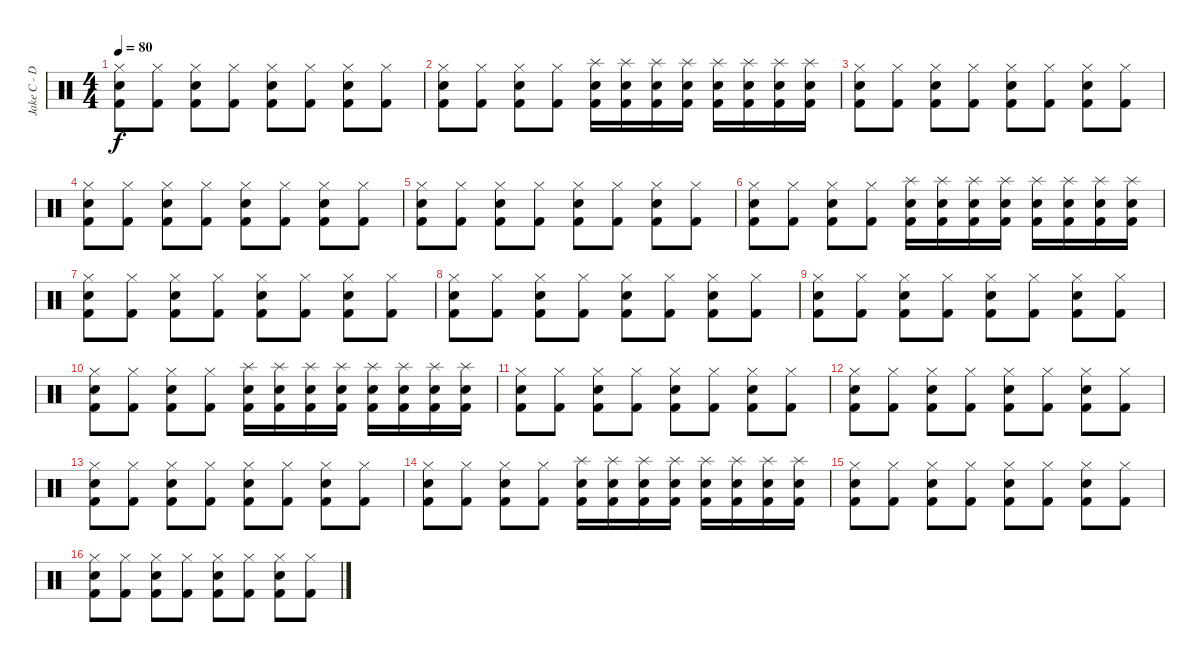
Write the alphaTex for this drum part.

\track ("Jake C - Drums" "Jake C - D") {instrument percussion}
\staff {score}
\articulation defaults
\ts (4 4)
\tempo 80
\clef neutral
\ks c
("Hi-Hat (closed)" "Electric Snare (hit)" "Kick (hit) 2").8{dy f} ("Hi-Hat (closed)" "Kick (hit) 2").8 ("Hi-Hat (closed)" "Electric Snare (hit)" "Kick (hit) 2").8 ("Hi-Hat (closed)" "Kick (hit) 2").8 ("Hi-Hat (closed)" "Electric Snare (hit)" "Kick (hit) 2").8 ("Hi-Hat (closed)" "Kick (hit) 2").8 ("Hi-Hat (closed)" "Electric Snare (hit)" "Kick (hit) 2").8 ("Hi-Hat (closed)" "Kick (hit) 2").8 |
("Hi-Hat (closed)" "Electric Snare (hit)" "Kick (hit) 2").8 ("Hi-Hat (closed)" "Kick (hit) 2").8 ("Hi-Hat (closed)" "Electric Snare (hit)" "Kick (hit) 2").8 ("Hi-Hat (closed)" "Kick (hit) 2").8 ("Splash (hit)" "Electric Snare (hit)" "Kick (hit) 2").16 ("Splash (hit)" "Electric Snare (hit)" "Kick (hit) 2").16 ("Splash (hit)" "Electric Snare (hit)" "Kick (hit) 2").16 ("Splash (hit)" "Electric Snare (hit)" "Kick (hit) 2").16 ("Splash (hit)" "Electric Snare (hit)" "Kick (hit) 2").16 ("Splash (hit)" "Electric Snare (hit)" "Kick (hit) 2").16 ("Splash (hit)" "Electric Snare (hit)" "Kick (hit) 2").16 ("Splash (hit)" "Electric Snare (hit)" "Kick (hit) 2").16 |
("Hi-Hat (closed)" "Electric Snare (hit)" "Kick (hit) 2").8 ("Hi-Hat (closed)" "Kick (hit) 2").8 ("Hi-Hat (closed)" "Electric Snare (hit)" "Kick (hit) 2").8 ("Hi-Hat (closed)" "Kick (hit) 2").8 ("Hi-Hat (closed)" "Electric Snare (hit)" "Kick (hit) 2").8 ("Hi-Hat (closed)" "Kick (hit) 2").8 ("Hi-Hat (closed)" "Electric Snare (hit)" "Kick (hit) 2").8 ("Hi-Hat (closed)" "Kick (hit) 2").8 |
("Hi-Hat (closed)" "Electric Snare (hit)" "Kick (hit) 2").8 ("Hi-Hat (closed)" "Kick (hit) 2").8 ("Hi-Hat (closed)" "Electric Snare (hit)" "Kick (hit) 2").8 ("Hi-Hat (closed)" "Kick (hit) 2").8 ("Hi-Hat (closed)" "Electric Snare (hit)" "Kick (hit) 2").8 ("Hi-Hat (closed)" "Kick (hit) 2").8 ("Hi-Hat (closed)" "Electric Snare (hit)" "Kick (hit) 2").8 ("Hi-Hat (closed)" "Kick (hit) 2").8 |
("Hi-Hat (closed)" "Electric Snare (hit)" "Kick (hit) 2").8 ("Hi-Hat (closed)" "Kick (hit) 2").8 ("Hi-Hat (closed)" "Electric Snare (hit)" "Kick (hit) 2").8 ("Hi-Hat (closed)" "Kick (hit) 2").8 ("Hi-Hat (closed)" "Electric Snare (hit)" "Kick (hit) 2").8 ("Hi-Hat (closed)" "Kick (hit) 2").8 ("Hi-Hat (closed)" "Electric Snare (hit)" "Kick (hit) 2").8 ("Hi-Hat (closed)" "Kick (hit) 2").8 |
("Hi-Hat (closed)" "Electric Snare (hit)" "Kick (hit) 2").8 ("Hi-Hat (closed)" "Kick (hit) 2").8 ("Hi-Hat (closed)" "Electric Snare (hit)" "Kick (hit) 2").8 ("Hi-Hat (closed)" "Kick (hit) 2").8 ("Splash (hit)" "Electric Snare (hit)" "Kick (hit) 2").16 ("Splash (hit)" "Electric Snare (hit)" "Kick (hit) 2").16 ("Splash (hit)" "Electric Snare (hit)" "Kick (hit) 2").16 ("Splash (hit)" "Electric Snare (hit)" "Kick (hit) 2").16 ("Splash (hit)" "Electric Snare (hit)" "Kick (hit) 2").16 ("Splash (hit)" "Electric Snare (hit)" "Kick (hit) 2").16 ("Splash (hit)" "Electric Snare (hit)" "Kick (hit) 2").16 ("Splash (hit)" "Electric Snare (hit)" "Kick (hit) 2").16 |
("Hi-Hat (closed)" "Electric Snare (hit)" "Kick (hit) 2").8 ("Hi-Hat (closed)" "Kick (hit) 2").8 ("Hi-Hat (closed)" "Electric Snare (hit)" "Kick (hit) 2").8 ("Hi-Hat (closed)" "Kick (hit) 2").8 ("Hi-Hat (closed)" "Electric Snare (hit)" "Kick (hit) 2").8 ("Hi-Hat (closed)" "Kick (hit) 2").8 ("Hi-Hat (closed)" "Electric Snare (hit)" "Kick (hit) 2").8 ("Hi-Hat (closed)" "Kick (hit) 2").8 |
("Hi-Hat (closed)" "Electric Snare (hit)" "Kick (hit) 2").8 ("Hi-Hat (closed)" "Kick (hit) 2").8 ("Hi-Hat (closed)" "Electric Snare (hit)" "Kick (hit) 2").8 ("Hi-Hat (closed)" "Kick (hit) 2").8 ("Hi-Hat (closed)" "Electric Snare (hit)" "Kick (hit) 2").8 ("Hi-Hat (closed)" "Kick (hit) 2").8 ("Hi-Hat (closed)" "Electric Snare (hit)" "Kick (hit) 2").8 ("Hi-Hat (closed)" "Kick (hit) 2").8 |
("Hi-Hat (closed)" "Electric Snare (hit)" "Kick (hit) 2").8 ("Hi-Hat (closed)" "Kick (hit) 2").8 ("Hi-Hat (closed)" "Electric Snare (hit)" "Kick (hit) 2").8 ("Hi-Hat (closed)" "Kick (hit) 2").8 ("Hi-Hat (closed)" "Electric Snare (hit)" "Kick (hit) 2").8 ("Hi-Hat (closed)" "Kick (hit) 2").8 ("Hi-Hat (closed)" "Electric Snare (hit)" "Kick (hit) 2").8 ("Hi-Hat (closed)" "Kick (hit) 2").8 |
("Hi-Hat (closed)" "Electric Snare (hit)" "Kick (hit) 2").8 ("Hi-Hat (closed)" "Kick (hit) 2").8 ("Hi-Hat (closed)" "Electric Snare (hit)" "Kick (hit) 2").8 ("Hi-Hat (closed)" "Kick (hit) 2").8 ("Splash (hit)" "Electric Snare (hit)" "Kick (hit) 2").16 ("Splash (hit)" "Electric Snare (hit)" "Kick (hit) 2").16 ("Splash (hit)" "Electric Snare (hit)" "Kick (hit) 2").16 ("Splash (hit)" "Electric Snare (hit)" "Kick (hit) 2").16 ("Splash (hit)" "Electric Snare (hit)" "Kick (hit) 2").16 ("Splash (hit)" "Electric Snare (hit)" "Kick (hit) 2").16 ("Splash (hit)" "Electric Snare (hit)" "Kick (hit) 2").16 ("Splash (hit)" "Electric Snare (hit)" "Kick (hit) 2").16 |
("Hi-Hat (closed)" "Electric Snare (hit)" "Kick (hit) 2").8 ("Hi-Hat (closed)" "Kick (hit) 2").8 ("Hi-Hat (closed)" "Electric Snare (hit)" "Kick (hit) 2").8 ("Hi-Hat (closed)" "Kick (hit) 2").8 ("Hi-Hat (closed)" "Electric Snare (hit)" "Kick (hit) 2").8 ("Hi-Hat (closed)" "Kick (hit) 2").8 ("Hi-Hat (closed)" "Electric Snare (hit)" "Kick (hit) 2").8 ("Hi-Hat (closed)" "Kick (hit) 2").8 |
("Hi-Hat (closed)" "Electric Snare (hit)" "Kick (hit) 2").8 ("Hi-Hat (closed)" "Kick (hit) 2").8 ("Hi-Hat (closed)" "Electric Snare (hit)" "Kick (hit) 2").8 ("Hi-Hat (closed)" "Kick (hit) 2").8 ("Hi-Hat (closed)" "Electric Snare (hit)" "Kick (hit) 2").8 ("Hi-Hat (closed)" "Kick (hit) 2").8 ("Hi-Hat (closed)" "Electric Snare (hit)" "Kick (hit) 2").8 ("Hi-Hat (closed)" "Kick (hit) 2").8 |
("Hi-Hat (closed)" "Electric Snare (hit)" "Kick (hit) 2").8 ("Hi-Hat (closed)" "Kick (hit) 2").8 ("Hi-Hat (closed)" "Electric Snare (hit)" "Kick (hit) 2").8 ("Hi-Hat (closed)" "Kick (hit) 2").8 ("Hi-Hat (closed)" "Electric Snare (hit)" "Kick (hit) 2").8 ("Hi-Hat (closed)" "Kick (hit) 2").8 ("Hi-Hat (closed)" "Electric Snare (hit)" "Kick (hit) 2").8 ("Hi-Hat (closed)" "Kick (hit) 2").8 |
("Hi-Hat (closed)" "Electric Snare (hit)" "Kick (hit) 2").8 ("Hi-Hat (closed)" "Kick (hit) 2").8 ("Hi-Hat (closed)" "Electric Snare (hit)" "Kick (hit) 2").8 ("Hi-Hat (closed)" "Kick (hit) 2").8 ("Splash (hit)" "Electric Snare (hit)" "Kick (hit) 2").16 ("Splash (hit)" "Electric Snare (hit)" "Kick (hit) 2").16 ("Splash (hit)" "Electric Snare (hit)" "Kick (hit) 2").16 ("Splash (hit)" "Electric Snare (hit)" "Kick (hit) 2").16 ("Splash (hit)" "Electric Snare (hit)" "Kick (hit) 2").16 ("Splash (hit)" "Electric Snare (hit)" "Kick (hit) 2").16 ("Splash (hit)" "Electric Snare (hit)" "Kick (hit) 2").16 ("Splash (hit)" "Electric Snare (hit)" "Kick (hit) 2").16 |
("Hi-Hat (closed)" "Electric Snare (hit)" "Kick (hit) 2").8 ("Hi-Hat (closed)" "Kick (hit) 2").8 ("Hi-Hat (closed)" "Electric Snare (hit)" "Kick (hit) 2").8 ("Hi-Hat (closed)" "Kick (hit) 2").8 ("Hi-Hat (closed)" "Electric Snare (hit)" "Kick (hit) 2").8 ("Hi-Hat (closed)" "Kick (hit) 2").8 ("Hi-Hat (closed)" "Electric Snare (hit)" "Kick (hit) 2").8 ("Hi-Hat (closed)" "Kick (hit) 2").8 |
("Hi-Hat (closed)" "Electric Snare (hit)" "Kick (hit) 2").8 ("Hi-Hat (closed)" "Kick (hit) 2").8 ("Hi-Hat (closed)" "Electric Snare (hit)" "Kick (hit) 2").8 ("Hi-Hat (closed)" "Kick (hit) 2").8 ("Hi-Hat (closed)" "Electric Snare (hit)" "Kick (hit) 2").8 ("Hi-Hat (closed)" "Kick (hit) 2").8 ("Hi-Hat (closed)" "Electric Snare (hit)" "Kick (hit) 2").8 ("Hi-Hat (closed)" "Kick (hit) 2").8
